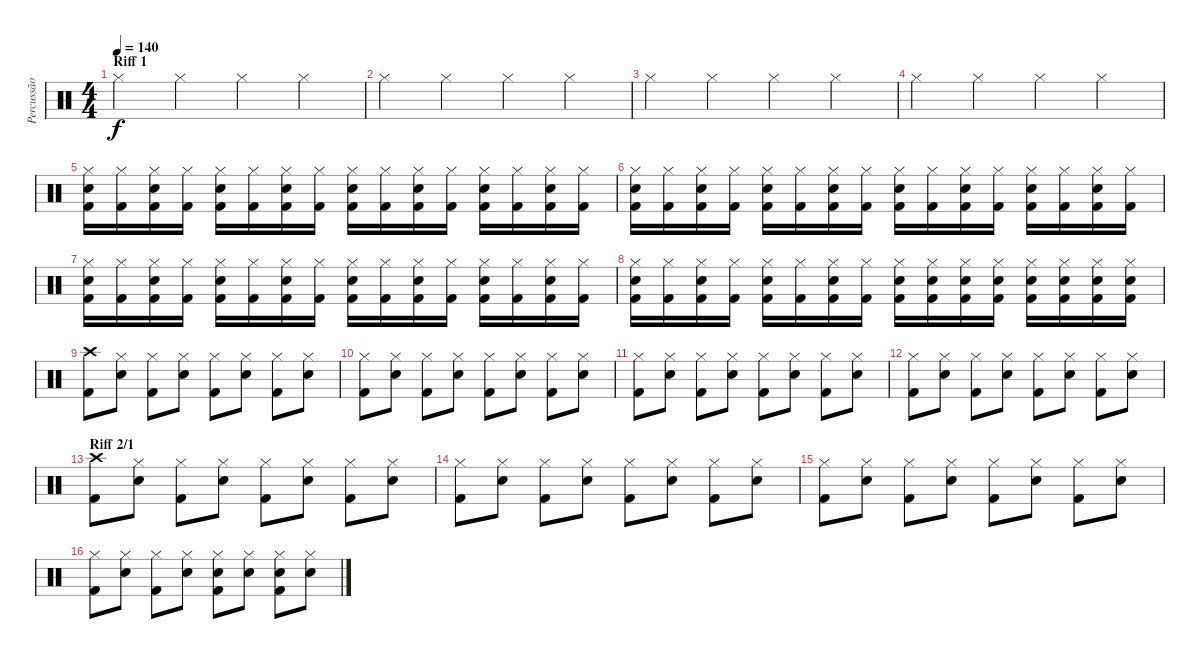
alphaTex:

\track ("Percussão" "Percussão") {instrument percussion}
\staff {score}
\articulation defaults
\ts (4 4)
\section ("" "Riff 1")
\tempo 140
\clef neutral
\ks c "Hi-Hat (closed)".4{dy f} "Hi-Hat (closed)".4 "Hi-Hat (closed)".4 "Hi-Hat (closed)".4
|
"Hi-Hat (closed)".4 "Hi-Hat (closed)".4 "Hi-Hat (closed)".4 "Hi-Hat (closed)".4 |
"Hi-Hat (closed)".4 "Hi-Hat (closed)".4 "Hi-Hat (closed)".4 "Hi-Hat (closed)".4 |
"Hi-Hat (closed)".4 "Hi-Hat (closed)".4 "Hi-Hat (closed)".4 "Hi-Hat (closed)".4 |
("Hi-Hat (closed)" "Snare (hit) 2" "Kick (hit) 2").16 ("Hi-Hat (closed)" "Kick (hit) 2").16 ("Hi-Hat (closed)" "Snare (hit) 2" "Kick (hit) 2").16 ("Hi-Hat (closed)" "Kick (hit) 2").16 ("Hi-Hat (closed)" "Snare (hit) 2" "Kick (hit) 2").16 ("Hi-Hat (closed)" "Kick (hit) 2").16 ("Hi-Hat (closed)" "Snare (hit) 2" "Kick (hit) 2").16 ("Hi-Hat (closed)" "Kick (hit) 2").16 ("Hi-Hat (closed)" "Snare (hit) 2" "Kick (hit) 2").16 ("Hi-Hat (closed)" "Kick (hit) 2").16 ("Hi-Hat (closed)" "Snare (hit) 2" "Kick (hit) 2").16 ("Hi-Hat (closed)" "Kick (hit) 2").16 ("Hi-Hat (closed)" "Snare (hit) 2" "Kick (hit) 2").16 ("Hi-Hat (closed)" "Kick (hit) 2").16 ("Hi-Hat (closed)" "Snare (hit) 2" "Kick (hit) 2").16 ("Hi-Hat (closed)" "Kick (hit) 2").16 |
("Hi-Hat (closed)" "Snare (hit) 2" "Kick (hit) 2").16 ("Hi-Hat (closed)" "Kick (hit) 2").16 ("Hi-Hat (closed)" "Snare (hit) 2" "Kick (hit) 2").16 ("Hi-Hat (closed)" "Kick (hit) 2").16 ("Hi-Hat (closed)" "Snare (hit) 2" "Kick (hit) 2").16 ("Hi-Hat (closed)" "Kick (hit) 2").16 ("Hi-Hat (closed)" "Snare (hit) 2" "Kick (hit) 2").16 ("Hi-Hat (closed)" "Kick (hit) 2").16 ("Hi-Hat (closed)" "Snare (hit) 2" "Kick (hit) 2").16 ("Hi-Hat (closed)" "Kick (hit) 2").16 ("Hi-Hat (closed)" "Snare (hit) 2" "Kick (hit) 2").16 ("Hi-Hat (closed)" "Kick (hit) 2").16 ("Hi-Hat (closed)" "Snare (hit) 2" "Kick (hit) 2").16 ("Hi-Hat (closed)" "Kick (hit) 2").16 ("Hi-Hat (closed)" "Snare (hit) 2" "Kick (hit) 2").16 ("Hi-Hat (closed)" "Kick (hit) 2").16 |
("Hi-Hat (closed)" "Snare (hit) 2" "Kick (hit) 2").16 ("Hi-Hat (closed)" "Kick (hit) 2").16 ("Hi-Hat (closed)" "Snare (hit) 2" "Kick (hit) 2").16 ("Hi-Hat (closed)" "Kick (hit) 2").16 ("Hi-Hat (closed)" "Snare (hit) 2" "Kick (hit) 2").16 ("Hi-Hat (closed)" "Kick (hit) 2").16 ("Hi-Hat (closed)" "Snare (hit) 2" "Kick (hit) 2").16 ("Hi-Hat (closed)" "Kick (hit) 2").16 ("Hi-Hat (closed)" "Snare (hit) 2" "Kick (hit) 2").16 ("Hi-Hat (closed)" "Kick (hit) 2").16 ("Hi-Hat (closed)" "Snare (hit) 2" "Kick (hit) 2").16 ("Hi-Hat (closed)" "Kick (hit) 2").16 ("Hi-Hat (closed)" "Snare (hit) 2" "Kick (hit) 2").16 ("Hi-Hat (closed)" "Kick (hit) 2").16 ("Hi-Hat (closed)" "Snare (hit) 2" "Kick (hit) 2").16 ("Hi-Hat (closed)" "Kick (hit) 2").16 |
("Hi-Hat (closed)" "Snare (hit) 2" "Kick (hit) 2").16 ("Hi-Hat (closed)" "Kick (hit) 2").16 ("Hi-Hat (closed)" "Snare (hit) 2" "Kick (hit) 2").16 ("Hi-Hat (closed)" "Kick (hit) 2").16 ("Hi-Hat (closed)" "Snare (hit) 2" "Kick (hit) 2").16 ("Hi-Hat (closed)" "Kick (hit) 2").16 ("Hi-Hat (closed)" "Snare (hit) 2" "Kick (hit) 2").16 ("Hi-Hat (closed)" "Kick (hit) 2").16 ("Hi-Hat (closed)" "Snare (hit) 2" "Kick (hit) 2").16 ("Hi-Hat (closed)" "Snare (hit) 2" "Kick (hit) 2").16 ("Hi-Hat (closed)" "Snare (hit) 2" "Kick (hit) 2").16 ("Hi-Hat (closed)" "Snare (hit) 2" "Kick (hit) 2").16 ("Hi-Hat (closed)" "Snare (hit) 2" "Kick (hit) 2").16 ("Hi-Hat (closed)" "Snare (hit) 2" "Kick (hit) 2").16 ("Hi-Hat (closed)" "Snare (hit) 2" "Kick (hit) 2").16 ("Hi-Hat (closed)" "Snare (hit) 2" "Kick (hit) 2").16 |
("Crash high (hit)" "Kick (hit) 2").8 ("Hi-Hat (closed)" "Snare (hit) 2").8 ("Hi-Hat (closed)" "Kick (hit) 2").8 ("Hi-Hat (closed)" "Snare (hit) 2").8 ("Hi-Hat (closed)" "Kick (hit) 2").8 ("Hi-Hat (closed)" "Snare (hit) 2").8 ("Hi-Hat (closed)" "Kick (hit) 2").8 ("Hi-Hat (closed)" "Snare (hit) 2").8 |
("Hi-Hat (closed)" "Kick (hit) 2").8 ("Hi-Hat (closed)" "Snare (hit) 2").8 ("Hi-Hat (closed)" "Kick (hit) 2").8 ("Hi-Hat (closed)" "Snare (hit) 2").8 ("Hi-Hat (closed)" "Kick (hit) 2").8 ("Hi-Hat (closed)" "Snare (hit) 2").8 ("Hi-Hat (closed)" "Kick (hit) 2").8 ("Hi-Hat (closed)" "Snare (hit) 2").8 |
("Hi-Hat (closed)" "Kick (hit) 2").8 ("Hi-Hat (closed)" "Snare (hit) 2").8 ("Hi-Hat (closed)" "Kick (hit) 2").8 ("Hi-Hat (closed)" "Snare (hit) 2").8 ("Hi-Hat (closed)" "Kick (hit) 2").8 ("Hi-Hat (closed)" "Snare (hit) 2").8 ("Hi-Hat (closed)" "Kick (hit) 2").8 ("Hi-Hat (closed)" "Snare (hit) 2").8 |
("Hi-Hat (closed)" "Kick (hit) 2").8 ("Hi-Hat (closed)" "Snare (hit) 2").8 ("Hi-Hat (closed)" "Kick (hit) 2").8 ("Hi-Hat (closed)" "Snare (hit) 2").8 ("Hi-Hat (closed)" "Kick (hit) 2").8 ("Hi-Hat (closed)" "Snare (hit) 2").8 ("Hi-Hat (closed)" "Kick (hit) 2").8 ("Hi-Hat (closed)" "Snare (hit) 2").8 |
\section ("" "Riff 2/1")
("Crash high (hit)" "Kick (hit) 2").8 ("Hi-Hat (closed)" "Snare (hit) 2").8 ("Hi-Hat (closed)" "Kick (hit) 2").8 ("Hi-Hat (closed)" "Snare (hit) 2").8 ("Hi-Hat (closed)" "Kick (hit) 2").8 ("Hi-Hat (closed)" "Snare (hit) 2").8 ("Hi-Hat (closed)" "Kick (hit) 2").8 ("Hi-Hat (closed)" "Snare (hit) 2").8 |
("Hi-Hat (closed)" "Kick (hit) 2").8 ("Hi-Hat (closed)" "Snare (hit) 2").8 ("Hi-Hat (closed)" "Kick (hit) 2").8 ("Hi-Hat (closed)" "Snare (hit) 2").8 ("Hi-Hat (closed)" "Kick (hit) 2").8 ("Hi-Hat (closed)" "Snare (hit) 2").8 ("Hi-Hat (closed)" "Kick (hit) 2").8 ("Hi-Hat (closed)" "Snare (hit) 2").8 |
("Hi-Hat (closed)" "Kick (hit) 2").8 ("Hi-Hat (closed)" "Snare (hit) 2").8 ("Hi-Hat (closed)" "Kick (hit) 2").8 ("Hi-Hat (closed)" "Snare (hit) 2").8 ("Hi-Hat (closed)" "Kick (hit) 2").8 ("Hi-Hat (closed)" "Snare (hit) 2").8 ("Hi-Hat (closed)" "Kick (hit) 2").8 ("Hi-Hat (closed)" "Snare (hit) 2").8 |
("Hi-Hat (closed)" "Kick (hit) 2").8 ("Hi-Hat (closed)" "Snare (hit) 2").8 ("Hi-Hat (closed)" "Kick (hit) 2").8 ("Hi-Hat (closed)" "Snare (hit) 2").8 ("Hi-Hat (closed)" "Snare (hit) 2" "Kick (hit) 2").8 ("Hi-Hat (closed)" "Snare (hit) 2").8 ("Hi-Hat (closed)" "Snare (hit) 2" "Kick (hit) 2").8 ("Hi-Hat (closed)" "Snare (hit) 2").8
